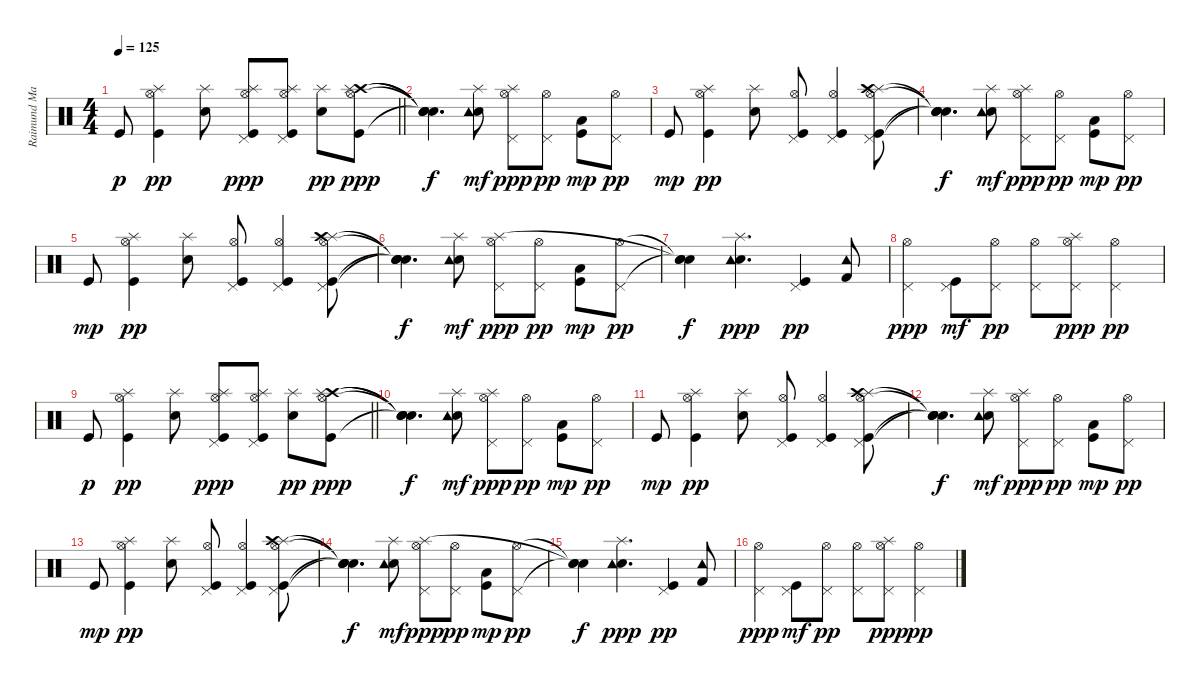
\track ("Raimund Marasigan (Drums)" "Raimund Ma") {instrument percussion}
\staff {score}
\articulation defaults
\ts (4 4)
\tempo 125
\clef neutral
\barLineRight lightlight
\ks c "Kick (hit)".8{dy p}
("Kick (hit)" "Splash (hit)" "Hi-Hat (open)").4{dy pp} ("Electric Snare (hit)" "Splash (hit)").8 ("Kick (hit)" "Pedal Hi-Hat (hit)" "Hi-Hat (open)" "Splash (hit)").8{dy ppp} ("Kick (hit)" "Pedal Hi-Hat (hit)" "Hi-Hat (open)" "Splash (hit)").8 ("Electric Snare (hit)" "Splash (hit)").8{dy pp} ("Crash high (hit)" "Kick (hit)" "Hi-Hat (open)" "Splash (hit)").8{dy ppp} |
("Snare (hit)"{t} "Snare (hit)"{t} "Snare (hit)"{t} "Snare (hit)"{t}).4{d dy f} ("Electric Snare (hit)" "Splash (hit)" "Tambourine (hit)").8{dy mf} ("Pedal Hi-Hat (hit)" "Hi-Hat (open)" "Splash (hit)").8{dy ppp} ("Pedal Hi-Hat (hit)" "Hi-Hat (open)").8{dy pp} ("Kick (hit)" "Low Tom (hit)").8{dy mp} ("Pedal Hi-Hat (hit)" "Hi-Hat (open)").8{dy pp} |
"Kick (hit)".8{dy mp} ("Kick (hit)" "Splash (hit)" "Hi-Hat (open)").4{dy pp} ("Electric Snare (hit)" "Splash (hit)").8 ("Kick (hit)" "Pedal Hi-Hat (hit)" "Hi-Hat (open)").8 ("Kick (hit)" "Pedal Hi-Hat (hit)" "Hi-Hat (open)").4 ("Kick (hit)" "Pedal Hi-Hat (hit)" "Hi-Hat (open)" "Splash (hit)" "Crash high (hit)").8 |
("Snare (hit)"{t} "Snare (hit)"{t} "Snare (hit)"{t} "Snare (hit)"{t}).4{d dy f} ("Electric Snare (hit)" "Splash (hit)" "Tambourine (hit)").8{dy mf} ("Pedal Hi-Hat (hit)" "Hi-Hat (open)" "Splash (hit)").8{dy ppp} ("Pedal Hi-Hat (hit)" "Hi-Hat (open)").8{dy pp} ("Kick (hit)" "Low Tom (hit)").8{dy mp} ("Pedal Hi-Hat (hit)" "Hi-Hat (open)").8{dy pp} |
"Kick (hit)".8{dy mp} ("Kick (hit)" "Splash (hit)" "Hi-Hat (open)").4{dy pp} ("Electric Snare (hit)" "Splash (hit)").8 ("Kick (hit)" "Pedal Hi-Hat (hit)" "Hi-Hat (open)").8 ("Kick (hit)" "Pedal Hi-Hat (hit)" "Hi-Hat (open)").4 ("Kick (hit)" "Pedal Hi-Hat (hit)" "Hi-Hat (open)" "Splash (hit)" "Crash high (hit)").8 |
("Snare (hit)"{t} "Snare (hit)"{t} "Snare (hit)"{t} "Snare (hit)"{t}).4{d dy f} ("Electric Snare (hit)" "Splash (hit)" "Tambourine (hit)").8{dy mf} ("Pedal Hi-Hat (hit)" "Hi-Hat (open)" "Splash (hit)").8{dy ppp} ("Pedal Hi-Hat (hit)" "Hi-Hat (open)").8{dy pp} ("Kick (hit)" "Low Tom (hit)").8{dy mp} ("Pedal Hi-Hat (hit)" "Hi-Hat (open)").8{dy pp} |
("Snare (hit)"{t} "Snare (hit)"{t} "Snare (hit)"{t}).4{dy f} ("Snare (hit) 2" "Tambourine (hit)" "Splash (hit)").4{d bd 60 dy ppp} ("Kick (hit)" "Pedal Hi-Hat (hit)").4{dy pp} ("Kick (hit) 2" "Tambourine (hit)").8 |
("Pedal Hi-Hat (hit)" "Hi-Hat (open)").4{dy ppp} ("Pedal Hi-Hat (hit)" "Kick (hit)").8{dy mf} ("Pedal Hi-Hat (hit)" "Hi-Hat (open)").8{dy pp} ("Pedal Hi-Hat (hit)" "Hi-Hat (open)").8 ("Pedal Hi-Hat (hit)" "Hi-Hat (open)" "Splash (hit)").8{dy ppp} ("Pedal Hi-Hat (hit)" "Hi-Hat (open)").4{dy pp} |
\barLineRight lightlight "Kick (hit)".8{dy p}
("Kick (hit)" "Splash (hit)" "Hi-Hat (open)").4{dy pp} ("Electric Snare (hit)" "Splash (hit)").8 ("Kick (hit)" "Pedal Hi-Hat (hit)" "Hi-Hat (open)" "Splash (hit)").8{dy ppp} ("Kick (hit)" "Pedal Hi-Hat (hit)" "Hi-Hat (open)" "Splash (hit)").8 ("Electric Snare (hit)" "Splash (hit)").8{dy pp} ("Crash high (hit)" "Kick (hit)" "Hi-Hat (open)" "Splash (hit)").8{dy ppp} |
("Snare (hit)"{t} "Snare (hit)"{t} "Snare (hit)"{t} "Snare (hit)"{t}).4{d dy f} ("Electric Snare (hit)" "Splash (hit)" "Tambourine (hit)").8{dy mf} ("Pedal Hi-Hat (hit)" "Hi-Hat (open)" "Splash (hit)").8{dy ppp} ("Pedal Hi-Hat (hit)" "Hi-Hat (open)").8{dy pp} ("Kick (hit)" "Low Tom (hit)").8{dy mp} ("Pedal Hi-Hat (hit)" "Hi-Hat (open)").8{dy pp} |
"Kick (hit)".8{dy mp} ("Kick (hit)" "Splash (hit)" "Hi-Hat (open)").4{dy pp} ("Electric Snare (hit)" "Splash (hit)").8 ("Kick (hit)" "Pedal Hi-Hat (hit)" "Hi-Hat (open)").8 ("Kick (hit)" "Pedal Hi-Hat (hit)" "Hi-Hat (open)").4 ("Kick (hit)" "Pedal Hi-Hat (hit)" "Hi-Hat (open)" "Splash (hit)" "Crash high (hit)").8 |
("Snare (hit)"{t} "Snare (hit)"{t} "Snare (hit)"{t} "Snare (hit)"{t}).4{d dy f} ("Electric Snare (hit)" "Splash (hit)" "Tambourine (hit)").8{dy mf} ("Pedal Hi-Hat (hit)" "Hi-Hat (open)" "Splash (hit)").8{dy ppp} ("Pedal Hi-Hat (hit)" "Hi-Hat (open)").8{dy pp} ("Kick (hit)" "Low Tom (hit)").8{dy mp} ("Pedal Hi-Hat (hit)" "Hi-Hat (open)").8{dy pp} |
"Kick (hit)".8{dy mp} ("Kick (hit)" "Splash (hit)" "Hi-Hat (open)").4{dy pp} ("Electric Snare (hit)" "Splash (hit)").8 ("Kick (hit)" "Pedal Hi-Hat (hit)" "Hi-Hat (open)").8 ("Kick (hit)" "Pedal Hi-Hat (hit)" "Hi-Hat (open)").4 ("Kick (hit)" "Pedal Hi-Hat (hit)" "Hi-Hat (open)" "Splash (hit)" "Crash high (hit)").8 |
("Snare (hit)"{t} "Snare (hit)"{t} "Snare (hit)"{t} "Snare (hit)"{t}).4{d dy f} ("Electric Snare (hit)" "Splash (hit)" "Tambourine (hit)").8{dy mf} ("Pedal Hi-Hat (hit)" "Hi-Hat (open)" "Splash (hit)").8{dy ppp} ("Pedal Hi-Hat (hit)" "Hi-Hat (open)").8{dy pp} ("Kick (hit)" "Low Tom (hit)").8{dy mp} ("Pedal Hi-Hat (hit)" "Hi-Hat (open)").8{dy pp} |
("Snare (hit)"{t} "Snare (hit)"{t} "Snare (hit)"{t}).4{dy f} ("Snare (hit) 2" "Tambourine (hit)" "Splash (hit)").4{d bd 60 dy ppp} ("Kick (hit)" "Pedal Hi-Hat (hit)").4{dy pp} ("Kick (hit) 2" "Tambourine (hit)").8 |
("Pedal Hi-Hat (hit)" "Hi-Hat (open)").4{dy ppp} ("Pedal Hi-Hat (hit)" "Kick (hit)").8{dy mf} ("Pedal Hi-Hat (hit)" "Hi-Hat (open)").8{dy pp} ("Pedal Hi-Hat (hit)" "Hi-Hat (open)").8 ("Pedal Hi-Hat (hit)" "Hi-Hat (open)" "Splash (hit)").8{dy ppp} ("Pedal Hi-Hat (hit)" "Hi-Hat (open)").4{dy pp}
